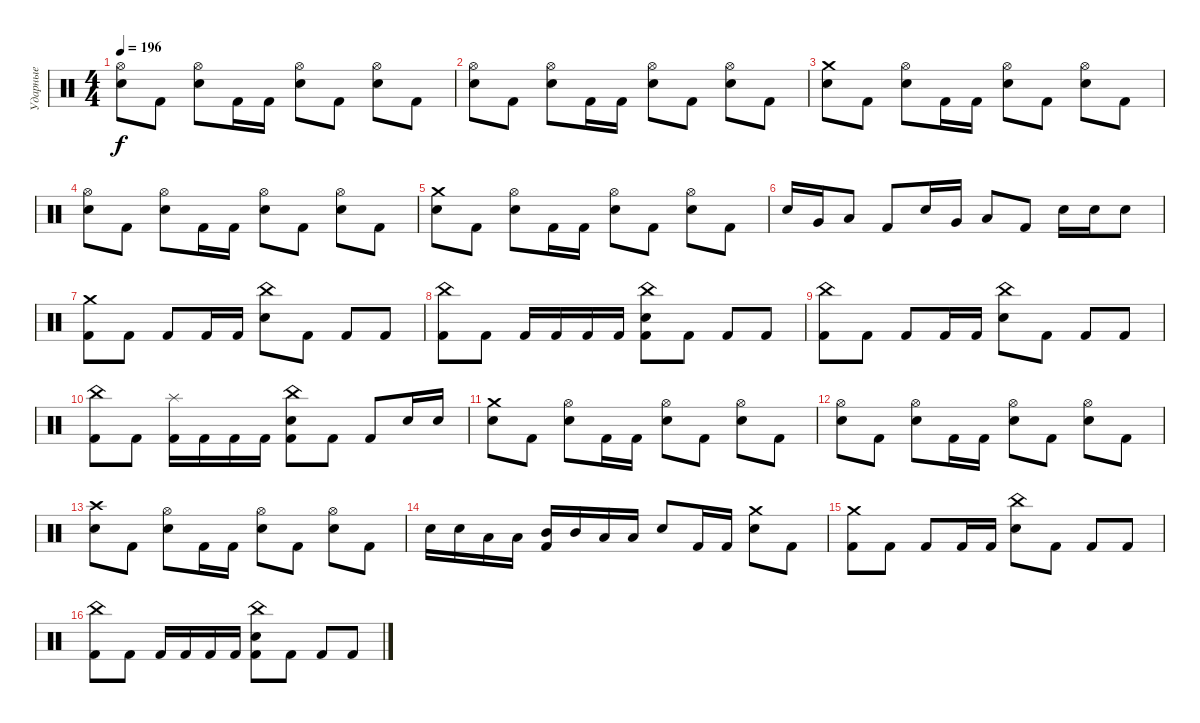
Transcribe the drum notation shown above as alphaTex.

\track ("Ударные" "Ударные") {instrument percussion}
\staff {score}
\articulation defaults
\ts (4 4)
\tempo 196
\clef neutral
\ks c
("Hi-Hat (open)" "Snare (hit) 2").8{dy f} "Kick (hit) 2".8 ("Hi-Hat (open)" "Snare (hit) 2").8 "Kick (hit) 2".16 "Kick (hit) 2".16 ("Hi-Hat (open)" "Snare (hit) 2").8 "Kick (hit) 2".8 ("Hi-Hat (open)" "Snare (hit) 2").8 "Kick (hit) 2".8 |
("Hi-Hat (open)" "Snare (hit) 2").8 "Kick (hit) 2".8 ("Hi-Hat (open)" "Snare (hit) 2").8 "Kick (hit) 2".16 "Kick (hit) 2".16 ("Hi-Hat (open)" "Snare (hit) 2").8 "Kick (hit) 2".8 ("Hi-Hat (open)" "Snare (hit) 2").8 "Kick (hit) 2".8 |
("Crash medium (hit)" "Snare (hit) 2").8 "Kick (hit) 2".8 ("Hi-Hat (open)" "Snare (hit) 2").8 "Kick (hit) 2".16 "Kick (hit) 2".16 ("Hi-Hat (open)" "Snare (hit) 2").8 "Kick (hit) 2".8 ("Hi-Hat (open)" "Snare (hit) 2").8 "Kick (hit) 2".8 |
("Hi-Hat (open)" "Snare (hit) 2").8 "Kick (hit) 2".8 ("Hi-Hat (open)" "Snare (hit) 2").8 "Kick (hit) 2".16 "Kick (hit) 2".16 ("Hi-Hat (open)" "Snare (hit) 2").8 "Kick (hit) 2".8 ("Hi-Hat (open)" "Snare (hit) 2").8 "Kick (hit) 2".8 |
("Crash medium (hit)" "Snare (hit) 2").8 "Kick (hit) 2".8 ("Hi-Hat (open)" "Snare (hit) 2").8 "Kick (hit) 2".16 "Kick (hit) 2".16 ("Hi-Hat (open)" "Snare (hit) 2").8 "Kick (hit) 2".8 ("Hi-Hat (open)" "Snare (hit) 2").8 "Kick (hit) 2".8 |
"Snare (hit) 2".16 "Very Low Tom (hit)".16 "Low Tom (hit)".8 "Kick (hit) 2".8 "Snare (hit) 2".16 "Very Low Tom (hit)".16 "Low Tom (hit)".8 "Kick (hit) 2".8 "Snare (hit) 2".16 "Snare (hit) 2".16 "Snare (hit) 2".8 |
("Crash medium (hit)" "Kick (hit) 2").8 "Kick (hit) 2".8 "Kick (hit) 2".8 "Kick (hit) 2".16 "Kick (hit) 2".16 ("China (hit)" "Snare (hit) 2").8 "Kick (hit) 2".8 "Kick (hit) 2".8 "Kick (hit) 2".8 |
("China (hit)" "Kick (hit) 2").8 "Kick (hit) 2".8 "Kick (hit) 2".16 "Kick (hit) 2".16 "Kick (hit) 2".16 "Kick (hit) 2".16 ("China (hit)" "Snare (hit) 2" "Kick (hit) 2").8 "Kick (hit) 2".8 "Kick (hit) 2".8 "Kick (hit) 2".8 |
("China (hit)" "Kick (hit) 2").8 "Kick (hit) 2".8 "Kick (hit) 2".8 "Kick (hit) 2".16 "Kick (hit) 2".16 ("China (hit)" "Snare (hit) 2").8 "Kick (hit) 2".8 "Kick (hit) 2".8 "Kick (hit) 2".8 |
("China (hit)" "Kick (hit) 2").8 "Kick (hit) 2".8 ("Splash (hit)" "Kick (hit) 2").16 "Kick (hit) 2".16 "Kick (hit) 2".16 "Kick (hit) 2".16 ("China (hit)" "Snare (hit) 2" "Kick (hit) 2").8 "Kick (hit) 2".8 "Kick (hit) 2".8 "Snare (hit) 2".16 "Snare (hit) 2".16 |
("Crash medium (hit)" "Snare (hit) 2").8 "Kick (hit) 2".8 ("Hi-Hat (open)" "Snare (hit) 2").8 "Kick (hit) 2".16 "Kick (hit) 2".16 ("Hi-Hat (open)" "Snare (hit) 2").8 "Kick (hit) 2".8 ("Hi-Hat (open)" "Snare (hit) 2").8 "Kick (hit) 2".8 |
("Hi-Hat (open)" "Snare (hit) 2").8 "Kick (hit) 2".8 ("Hi-Hat (open)" "Snare (hit) 2").8 "Kick (hit) 2".16 "Kick (hit) 2".16 ("Hi-Hat (open)" "Snare (hit) 2").8 "Kick (hit) 2".8 ("Hi-Hat (open)" "Snare (hit) 2").8 "Kick (hit) 2".8 |
("Crash high (hit)" "Snare (hit) 2").8 "Kick (hit) 2".8 ("Hi-Hat (open)" "Snare (hit) 2").8 "Kick (hit) 2".16 "Kick (hit) 2".16 ("Hi-Hat (open)" "Snare (hit) 2").8 "Kick (hit) 2".8 ("Hi-Hat (open)" "Snare (hit) 2").8 "Kick (hit) 2".8 |
"Snare (hit) 2".16 "Snare (hit) 2".16 "Low Tom (hit)".16 "Low Tom (hit)".16 ("Mid Tom (hit)" "Kick (hit) 2").16 "Mid Tom (hit)".16 "Low Tom (hit)".16 "Low Tom (hit)".16 "Snare (hit) 2".8 "Kick (hit) 2".16 "Kick (hit) 2".16 ("Crash medium (hit)" "Snare (hit) 2").8 "Kick (hit) 2".8 |
("Crash medium (hit)" "Kick (hit) 2").8 "Kick (hit) 2".8 "Kick (hit) 2".8 "Kick (hit) 2".16 "Kick (hit) 2".16 ("China (hit)" "Snare (hit) 2").8 "Kick (hit) 2".8 "Kick (hit) 2".8 "Kick (hit) 2".8 |
("China (hit)" "Kick (hit) 2").8 "Kick (hit) 2".8 "Kick (hit) 2".16 "Kick (hit) 2".16 "Kick (hit) 2".16 "Kick (hit) 2".16 ("China (hit)" "Snare (hit) 2" "Kick (hit) 2").8 "Kick (hit) 2".8 "Kick (hit) 2".8 "Kick (hit) 2".8
